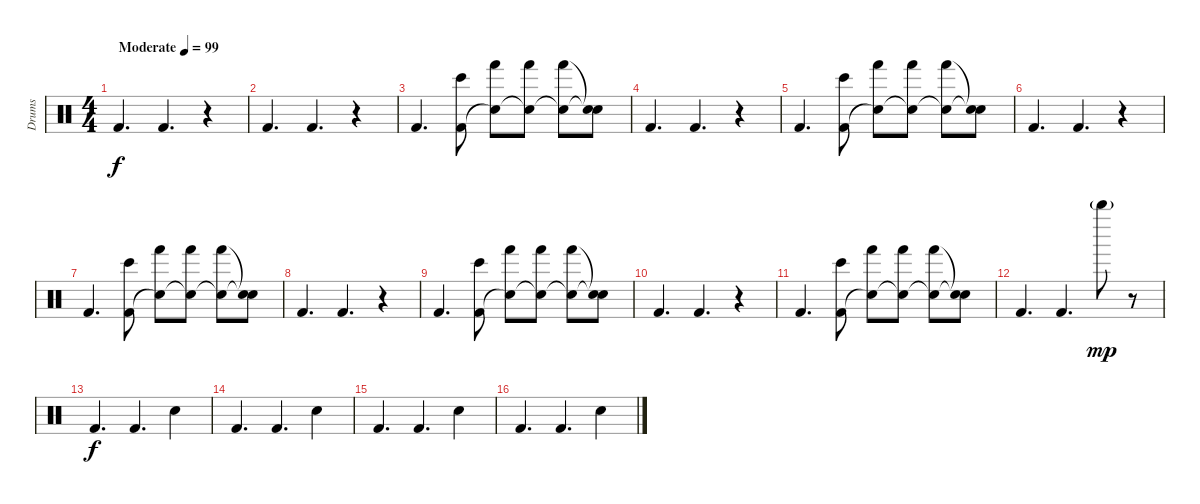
\track ("Drums" "Drums") {instrument percussion}
\staff {score}
\articulation defaults
\ts (4 4)
\tempo (99 "Moderate")
\clef neutral
\ks c "Kick (hit) 2".4{d dy f} "Kick (hit) 2".4{d}
r.4 |
"Kick (hit) 2".4{d} "Kick (hit) 2".4{d} r.4 |
"Kick (hit) 2".4{d} ("Bongo High (hit)" "Kick (hit) 2").8 ("Hand (hit)" "Snare (hit)"{t}).8 ("Hand (hit)" "Snare (hit)"{t}).8 ("Hand (hit)" "Snare (hit)"{t}).8 ("Snare (hit)"{t} "Snare (hit)"{t}).8 |
"Kick (hit) 2".4{d} "Kick (hit) 2".4{d} r.4 |
"Kick (hit) 2".4{d} ("Bongo High (hit)" "Kick (hit) 2").8 ("Hand (hit)" "Snare (hit)"{t}).8 ("Hand (hit)" "Snare (hit)"{t}).8 ("Hand (hit)" "Snare (hit)"{t}).8 ("Snare (hit)"{t} "Snare (hit)"{t}).8 |
"Kick (hit) 2".4{d} "Kick (hit) 2".4{d} r.4 |
"Kick (hit) 2".4{d} ("Bongo High (hit)" "Kick (hit) 2").8 ("Hand (hit)" "Snare (hit)"{t}).8 ("Hand (hit)" "Snare (hit)"{t}).8 ("Hand (hit)" "Snare (hit)"{t}).8 ("Snare (hit)"{t} "Snare (hit)"{t}).8 |
"Kick (hit) 2".4{d} "Kick (hit) 2".4{d} r.4 |
"Kick (hit) 2".4{d} ("Bongo High (hit)" "Kick (hit) 2").8 ("Hand (hit)" "Snare (hit)"{t}).8 ("Hand (hit)" "Snare (hit)"{t}).8 ("Hand (hit)" "Snare (hit)"{t}).8 ("Snare (hit)"{t} "Snare (hit)"{t}).8 |
"Kick (hit) 2".4{d} "Kick (hit) 2".4{d} r.4 |
"Kick (hit) 2".4{d} ("Bongo High (hit)" "Kick (hit) 2").8 ("Hand (hit)" "Snare (hit)"{t}).8 ("Hand (hit)" "Snare (hit)"{t}).8 ("Hand (hit)" "Snare (hit)"{t}).8 ("Snare (hit)"{t} "Snare (hit)"{t}).8 |
"Kick (hit) 2".4{d} "Kick (hit) 2".4{d} "Whistle high (hit)"{g}.8{dy mp} r.8 |
"Kick (hit) 2".4{d dy f} "Kick (hit) 2".4{d} "Snare (hit) 2".4 |
"Kick (hit) 2".4{d} "Kick (hit) 2".4{d} "Snare (hit) 2".4 |
"Kick (hit) 2".4{d} "Kick (hit) 2".4{d} "Snare (hit) 2".4 |
"Kick (hit) 2".4{d} "Kick (hit) 2".4{d} "Snare (hit) 2".4
